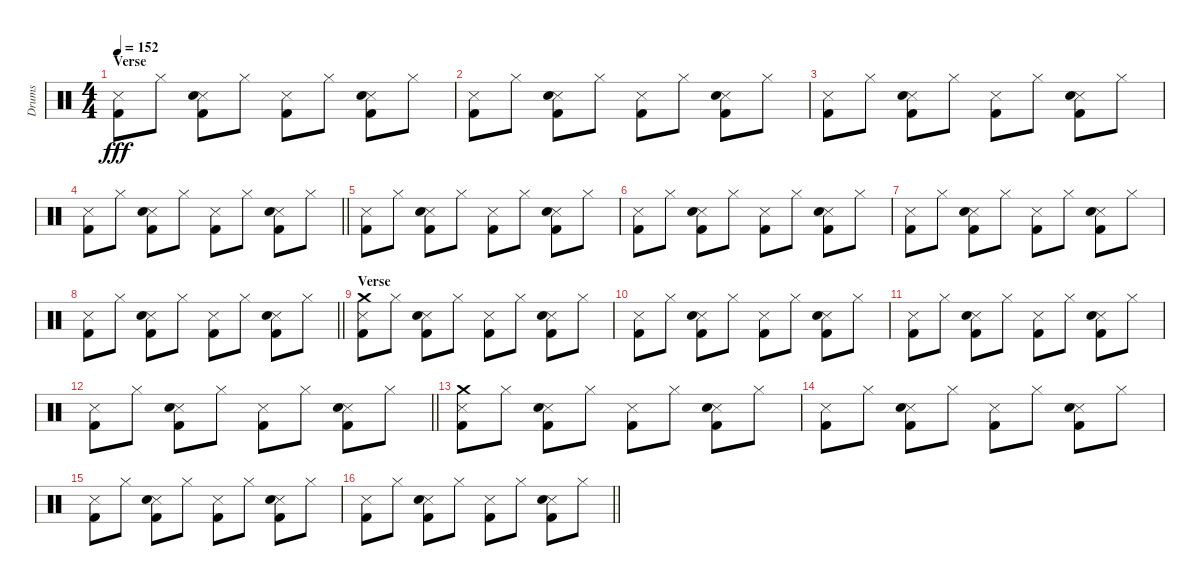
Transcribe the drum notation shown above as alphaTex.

\track ("Drums" "Drums") {instrument percussion}
\staff {score}
\articulation defaults
\ts (4 4)
\section ("" "Verse")
\tempo 152
\clef neutral
\ks c
("Snare (side stick) 3" "Kick (hit) 2").8{dy fff} "Hi-Hat (closed)".8 ("Snare (side stick) 3" "Electric Snare (hit)" "Kick (hit) 2").8 "Hi-Hat (closed)".8 ("Snare (side stick) 3" "Kick (hit) 2").8 "Hi-Hat (closed)".8 ("Snare (side stick) 3" "Electric Snare (hit)" "Kick (hit) 2").8 "Hi-Hat (closed)".8 |
("Snare (side stick) 3" "Kick (hit) 2").8 "Hi-Hat (closed)".8 ("Snare (side stick) 3" "Electric Snare (hit)" "Kick (hit) 2").8 "Hi-Hat (closed)".8 ("Snare (side stick) 3" "Kick (hit) 2").8 "Hi-Hat (closed)".8 ("Snare (side stick) 3" "Electric Snare (hit)" "Kick (hit) 2").8 "Hi-Hat (closed)".8 |
("Snare (side stick) 3" "Kick (hit) 2").8 "Hi-Hat (closed)".8 ("Snare (side stick) 3" "Electric Snare (hit)" "Kick (hit) 2").8 "Hi-Hat (closed)".8 ("Snare (side stick) 3" "Kick (hit) 2").8 "Hi-Hat (closed)".8 ("Snare (side stick) 3" "Electric Snare (hit)" "Kick (hit) 2").8 "Hi-Hat (closed)".8 |
\barLineRight lightlight
("Snare (side stick) 3" "Kick (hit) 2").8 "Hi-Hat (closed)".8 ("Snare (side stick) 3" "Electric Snare (hit)" "Kick (hit) 2").8 "Hi-Hat (closed)".8 ("Snare (side stick) 3" "Kick (hit) 2").8 "Hi-Hat (closed)".8 ("Snare (side stick) 3" "Electric Snare (hit)" "Kick (hit) 2").8 "Hi-Hat (closed)".8 |
("Snare (side stick) 3" "Kick (hit) 2").8 "Hi-Hat (closed)".8 ("Snare (side stick) 3" "Electric Snare (hit)" "Kick (hit) 2").8 "Hi-Hat (closed)".8 ("Snare (side stick) 3" "Kick (hit) 2").8 "Hi-Hat (closed)".8 ("Snare (side stick) 3" "Electric Snare (hit)" "Kick (hit) 2").8 "Hi-Hat (closed)".8 |
("Snare (side stick) 3" "Kick (hit) 2").8 "Hi-Hat (closed)".8 ("Snare (side stick) 3" "Electric Snare (hit)" "Kick (hit) 2").8 "Hi-Hat (closed)".8 ("Snare (side stick) 3" "Kick (hit) 2").8 "Hi-Hat (closed)".8 ("Snare (side stick) 3" "Electric Snare (hit)" "Kick (hit) 2").8 "Hi-Hat (closed)".8 |
("Snare (side stick) 3" "Kick (hit) 2").8 "Hi-Hat (closed)".8 ("Snare (side stick) 3" "Electric Snare (hit)" "Kick (hit) 2").8 "Hi-Hat (closed)".8 ("Snare (side stick) 3" "Kick (hit) 2").8 "Hi-Hat (closed)".8 ("Snare (side stick) 3" "Electric Snare (hit)" "Kick (hit) 2").8 "Hi-Hat (closed)".8 |
\barLineRight lightlight
("Snare (side stick) 3" "Kick (hit) 2").8 "Hi-Hat (closed)".8 ("Snare (side stick) 3" "Electric Snare (hit)" "Kick (hit) 2").8 "Hi-Hat (closed)".8 ("Snare (side stick) 3" "Kick (hit) 2").8 "Hi-Hat (closed)".8 ("Snare (side stick) 3" "Electric Snare (hit)" "Kick (hit) 2").8 "Hi-Hat (closed)".8 |
\section ("" "Verse")
("Crash medium (hit)" "Snare (side stick) 3" "Kick (hit) 2").8 "Hi-Hat (closed)".8 ("Snare (side stick) 3" "Electric Snare (hit)" "Kick (hit) 2").8 "Hi-Hat (closed)".8 ("Snare (side stick) 3" "Kick (hit) 2").8 "Hi-Hat (closed)".8 ("Snare (side stick) 3" "Electric Snare (hit)" "Kick (hit) 2").8 "Hi-Hat (closed)".8 |
("Snare (side stick) 3" "Kick (hit) 2").8 "Hi-Hat (closed)".8 ("Snare (side stick) 3" "Electric Snare (hit)" "Kick (hit) 2").8 "Hi-Hat (closed)".8 ("Snare (side stick) 3" "Kick (hit) 2").8 "Hi-Hat (closed)".8 ("Snare (side stick) 3" "Electric Snare (hit)" "Kick (hit) 2").8 "Hi-Hat (closed)".8 |
("Snare (side stick) 3" "Kick (hit) 2").8 "Hi-Hat (closed)".8 ("Snare (side stick) 3" "Electric Snare (hit)" "Kick (hit) 2").8 "Hi-Hat (closed)".8 ("Snare (side stick) 3" "Kick (hit) 2").8 "Hi-Hat (closed)".8 ("Snare (side stick) 3" "Electric Snare (hit)" "Kick (hit) 2").8 "Hi-Hat (closed)".8 |
\barLineRight lightlight
("Snare (side stick) 3" "Kick (hit) 2").8 "Hi-Hat (closed)".8 ("Snare (side stick) 3" "Electric Snare (hit)" "Kick (hit) 2").8 "Hi-Hat (closed)".8 ("Snare (side stick) 3" "Kick (hit) 2").8 "Hi-Hat (closed)".8 ("Snare (side stick) 3" "Electric Snare (hit)" "Kick (hit) 2").8 "Hi-Hat (closed)".8 |
("Crash medium (hit)" "Snare (side stick) 3" "Kick (hit) 2").8 "Hi-Hat (closed)".8 ("Snare (side stick) 3" "Electric Snare (hit)" "Kick (hit) 2").8 "Hi-Hat (closed)".8 ("Snare (side stick) 3" "Kick (hit) 2").8 "Hi-Hat (closed)".8 ("Snare (side stick) 3" "Electric Snare (hit)" "Kick (hit) 2").8 "Hi-Hat (closed)".8 |
("Snare (side stick) 3" "Kick (hit) 2").8 "Hi-Hat (closed)".8 ("Snare (side stick) 3" "Electric Snare (hit)" "Kick (hit) 2").8 "Hi-Hat (closed)".8 ("Snare (side stick) 3" "Kick (hit) 2").8 "Hi-Hat (closed)".8 ("Snare (side stick) 3" "Electric Snare (hit)" "Kick (hit) 2").8 "Hi-Hat (closed)".8 |
("Snare (side stick) 3" "Kick (hit) 2").8 "Hi-Hat (closed)".8 ("Snare (side stick) 3" "Electric Snare (hit)" "Kick (hit) 2").8 "Hi-Hat (closed)".8 ("Snare (side stick) 3" "Kick (hit) 2").8 "Hi-Hat (closed)".8 ("Snare (side stick) 3" "Electric Snare (hit)" "Kick (hit) 2").8 "Hi-Hat (closed)".8 |
\barLineRight lightlight
("Snare (side stick) 3" "Kick (hit) 2").8 "Hi-Hat (closed)".8 ("Snare (side stick) 3" "Electric Snare (hit)" "Kick (hit) 2").8 "Hi-Hat (closed)".8 ("Snare (side stick) 3" "Kick (hit) 2").8 "Hi-Hat (closed)".8 ("Snare (side stick) 3" "Electric Snare (hit)" "Kick (hit) 2").8 "Hi-Hat (closed)".8
